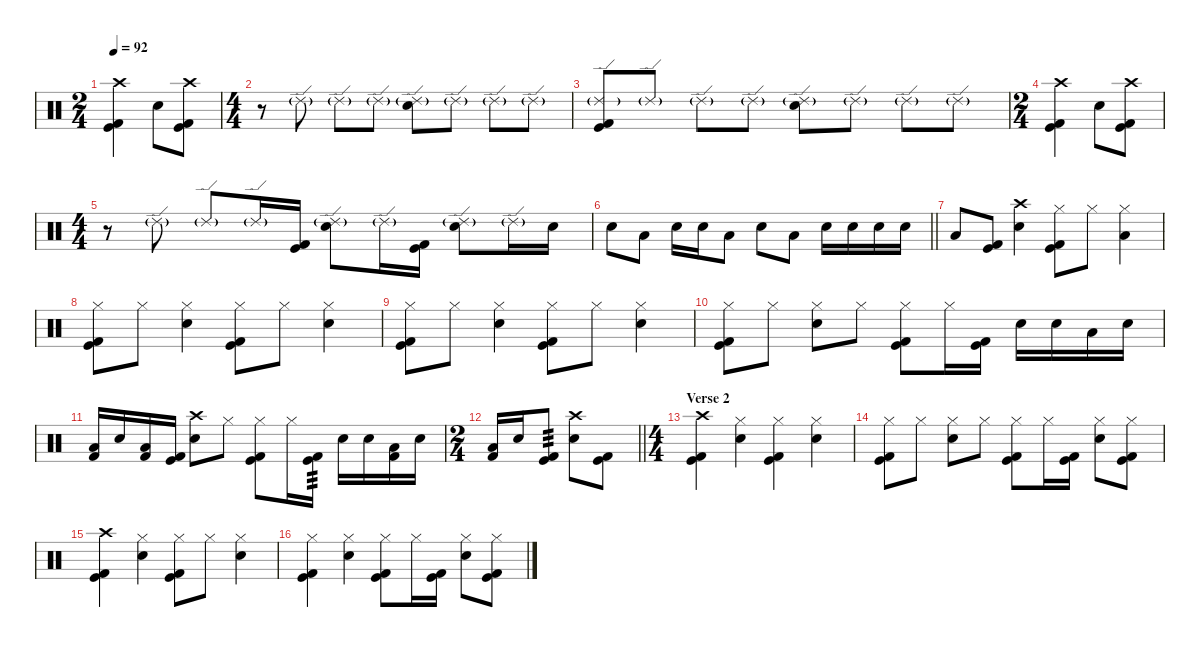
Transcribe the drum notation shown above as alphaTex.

\defaultSystemsLayout 4
\hideDynamics
\bracketExtendMode nobrackets
\singleTrackTrackNamePolicy hidden
\multiTrackTrackNamePolicy hidden
\otherSystemsTrackNameOrientation horizontal
\track ("Lars" "drm.") {instrument percussion}
\staff {score}
\articulation defaults
\ts (2 4)
\beaming (8 2 2 2 2)
\tempo 92
\clef neutral
\ks c
("Crash high (hit)" "Kick (hit)" "Kick (hit) 2").4{dy f beam Down} "Snare (hit) 2".8{beam Down} ("Crash high (hit)" "Kick (hit)" "Kick (hit) 2").8{beam Down} |
\ts (4 4)
\beaming (8 2 2 2 2)
r.8{beam Down} "Ride (edge) 2"{g}.8{dy mf beam Down} "Ride (edge) 2"{g}.8{beam Down} "Ride (edge) 2"{g}.8{beam Down} ("Ride (edge) 2"{g} "Snare (hit) 2").8{dy f beam Down} "Ride (edge) 2"{g}.8{dy mf beam Down} "Ride (edge) 2"{g}.8{beam Down} "Ride (edge) 2"{g}.8{beam Down} |
("Ride (edge) 2"{g} "Kick (hit)" "Kick (hit) 2").8{dy f beam Up} "Ride (edge) 2"{g}.8{dy mf beam Up} "Ride (edge) 2"{g}.8{beam Down} "Ride (edge) 2"{g}.8{beam Down} ("Ride (edge) 2"{g} "Snare (hit) 2").8{dy f beam Down} "Ride (edge) 2"{g}.8{dy mf beam Down} "Ride (edge) 2"{g}.8{beam Down} "Ride (edge) 2"{g}.8{beam Down} |
\ts (2 4)
\beaming (8 2 2)
("Crash high (hit)" "Kick (hit)" "Kick (hit) 2").4{dy f beam Down} "Snare (hit) 2".8{beam Down} ("Crash high (hit)" "Kick (hit)" "Kick (hit) 2").8{beam Down} |
\ts (4 4)
\beaming (8 2 2 2 2)
r.8{beam Down} "Ride (edge) 2"{g}.8{dy mf beam Down} "Ride (edge) 2"{g}.8{beam Up} "Ride (edge) 2"{g}.16{beam Up} ("Kick (hit)" "Kick (hit) 2").16{dy f beam Up} ("Ride (edge) 2"{g} "Snare (hit) 2").8{beam Down} "Ride (edge) 2"{g}.16{dy mf beam Down} ("Kick (hit)" "Kick (hit) 2").16{dy f beam Down} ("Ride (edge) 2"{g} "Snare (hit) 2").8{beam Down} "Ride (edge) 2"{g}.16{dy mf beam Down} "Snare (hit) 2".16{dy f beam Down} |
\barLineRight lightlight "Snare (hit) 2".8{beam Down} "Low Tom (hit)".8{beam Down} "Snare (hit) 2".16{beam Down} "Snare (hit) 2".16{beam Down} "Low Tom (hit)".8{beam Down} "Snare (hit) 2".8{beam Down} "Low Tom (hit)".8{beam Down} "Snare (hit) 2".16{beam Down} "Snare (hit) 2".16{beam Down} "Snare (hit) 2".16{beam Down} "Snare (hit) 2".16{beam Down}
|
\section ("" "")
"Low Tom (hit)".8{beam Up} ("Kick (hit)" "Kick (hit) 2").8{beam Up} ("Crash high (hit)" "Snare (hit) 2").4{beam Down} ("Hi-Hat (closed)" "Kick (hit)" "Kick (hit) 2").8{beam Down} "Hi-Hat (closed)".8{beam Down} ("Hi-Hat (closed)" "Low Tom (hit)").4{beam Down} |
("Hi-Hat (closed)" "Kick (hit)" "Kick (hit) 2").8{beam Down} "Hi-Hat (closed)".8{beam Down} ("Hi-Hat (closed)" "Snare (hit) 2").4{beam Down} ("Hi-Hat (closed)" "Kick (hit)" "Kick (hit) 2").8{beam Down} "Hi-Hat (closed)".8{beam Down} ("Hi-Hat (closed)" "Snare (hit) 2").4{beam Down} |
("Hi-Hat (closed)" "Kick (hit)" "Kick (hit) 2").8{beam Down} "Hi-Hat (closed)".8{beam Down} ("Hi-Hat (closed)" "Snare (hit) 2").4{beam Down} ("Hi-Hat (closed)" "Kick (hit)" "Kick (hit) 2").8{beam Down} "Hi-Hat (closed)".8{beam Down} ("Hi-Hat (closed)" "Snare (hit) 2").4{beam Down} |
("Hi-Hat (closed)" "Kick (hit)" "Kick (hit) 2").8{beam Down} "Hi-Hat (closed)".8{beam Down} ("Hi-Hat (closed)" "Snare (hit) 2").8{beam Down} "Hi-Hat (closed)".8{beam Down} ("Hi-Hat (closed)" "Kick (hit)" "Kick (hit) 2").8{beam Down} "Hi-Hat (closed)".16{beam Down} ("Kick (hit)" "Kick (hit) 2").16{beam Down} "Snare (hit) 2".16{beam Down} "Snare (hit) 2".16{beam Down} "Low Tom (hit)".16{beam Down} "Snare (hit) 2".16{beam Down} |
("Kick (hit) 2" "Low Floor Tom (hit)").16{beam Up} "Snare (hit) 2".16{beam Up} ("Kick (hit) 2" "Low Floor Tom (hit)").16{beam Up} ("Kick (hit)" "Kick (hit) 2").16{beam Up} ("Crash high (hit)" "Snare (hit) 2").8{beam Down} "Hi-Hat (closed)".8{beam Down} ("Hi-Hat (closed)" "Kick (hit)" "Kick (hit) 2").8{beam Down} "Hi-Hat (closed)".16{beam Down} ("Kick (hit)" "Kick (hit) 2").16{tp 3 beam Down} "Snare (hit) 2".16{beam Down} "Snare (hit) 2".16{beam Down} ("Kick (hit) 2" "Low Floor Tom (hit)").16{beam Down} "Snare (hit) 2".16{beam Down} |
\ts (2 4)
\beaming (8 2 2 2 2)
\barLineRight lightlight
("Kick (hit) 2" "Low Floor Tom (hit)").16{beam Up} "Snare (hit) 2".16{beam Up} ("Kick (hit)" "Kick (hit) 2").8{tp 3 beam Up} ("Crash high (hit)" "Snare (hit) 2").8{beam Down} ("Kick (hit)" "Kick (hit) 2").8{beam Down} |
\ts (4 4)
\beaming (8 2 2 2 2)
\section ("" "Verse 2")
("Crash high (hit)" "Kick (hit)" "Kick (hit) 2").4{beam Down} ("Hi-Hat (closed)" "Snare (hit) 2").4{beam Down} ("Hi-Hat (closed)" "Kick (hit)" "Kick (hit) 2").4{beam Down} ("Hi-Hat (closed)" "Snare (hit) 2").4{beam Down} |
("Hi-Hat (closed)" "Kick (hit)" "Kick (hit) 2").8{beam Down} "Hi-Hat (closed)".8{beam Down} ("Hi-Hat (closed)" "Snare (hit) 2").8{beam Down} "Hi-Hat (closed)".8{beam Down} ("Hi-Hat (closed)" "Kick (hit)" "Kick (hit) 2").8{beam Down} "Hi-Hat (closed)".16{beam Down} ("Kick (hit)" "Kick (hit) 2").16{beam Down} ("Hi-Hat (closed)" "Snare (hit) 2").8{beam Down} ("Hi-Hat (closed)" "Kick (hit)" "Kick (hit) 2").8{beam Down} |
("Crash high (hit)" "Kick (hit)" "Kick (hit) 2").4{beam Down} ("Hi-Hat (closed)" "Snare (hit) 2").4{beam Down} ("Hi-Hat (closed)" "Kick (hit)" "Kick (hit) 2").8{beam Down} "Hi-Hat (closed)".8{beam Down} ("Hi-Hat (closed)" "Snare (hit) 2").4{beam Down} |
("Hi-Hat (closed)" "Kick (hit)" "Kick (hit) 2").4{beam Down} ("Hi-Hat (closed)" "Snare (hit) 2").4{beam Down} ("Hi-Hat (closed)" "Kick (hit)" "Kick (hit) 2").8{beam Down} "Hi-Hat (closed)".16{beam Down} ("Kick (hit)" "Kick (hit) 2").16{beam Down} ("Hi-Hat (closed)" "Snare (hit) 2").8{beam Down} ("Hi-Hat (closed)" "Kick (hit)" "Kick (hit) 2").8{beam Down}
